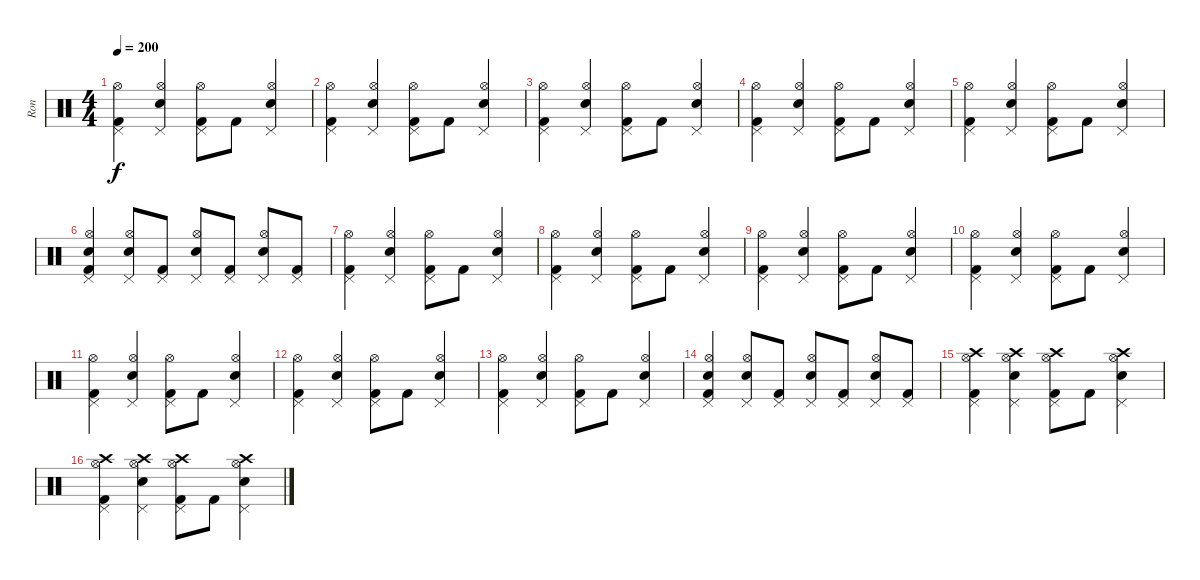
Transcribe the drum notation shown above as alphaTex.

\track ("Ron" "Ron") {instrument percussion}
\staff {score}
\articulation defaults
\ts (4 4)
\tempo 200
\clef neutral
\ks c
("Pedal Hi-Hat (hit)" "Kick (hit) 2" "Hi-Hat (open)").4{dy f} ("Electric Snare (hit)" "Pedal Hi-Hat (hit)" "Hi-Hat (open)").4 ("Pedal Hi-Hat (hit)" "Kick (hit) 2" "Hi-Hat (open)").8 "Kick (hit) 2".8 ("Electric Snare (hit)" "Pedal Hi-Hat (hit)" "Hi-Hat (open)").4 |
("Pedal Hi-Hat (hit)" "Kick (hit) 2" "Hi-Hat (open)").4 ("Electric Snare (hit)" "Pedal Hi-Hat (hit)" "Hi-Hat (open)").4 ("Pedal Hi-Hat (hit)" "Kick (hit) 2" "Hi-Hat (open)").8 "Kick (hit) 2".8 ("Electric Snare (hit)" "Pedal Hi-Hat (hit)" "Hi-Hat (open)").4 |
("Pedal Hi-Hat (hit)" "Kick (hit) 2" "Hi-Hat (open)").4 ("Electric Snare (hit)" "Pedal Hi-Hat (hit)" "Hi-Hat (open)").4 ("Pedal Hi-Hat (hit)" "Kick (hit) 2" "Hi-Hat (open)").8 "Kick (hit) 2".8 ("Electric Snare (hit)" "Pedal Hi-Hat (hit)" "Hi-Hat (open)").4 |
("Pedal Hi-Hat (hit)" "Kick (hit) 2" "Hi-Hat (open)").4 ("Electric Snare (hit)" "Pedal Hi-Hat (hit)" "Hi-Hat (open)").4 ("Pedal Hi-Hat (hit)" "Kick (hit) 2" "Hi-Hat (open)").8 "Kick (hit) 2".8 ("Electric Snare (hit)" "Pedal Hi-Hat (hit)" "Hi-Hat (open)").4 |
("Pedal Hi-Hat (hit)" "Kick (hit) 2" "Hi-Hat (open)").4 ("Electric Snare (hit)" "Pedal Hi-Hat (hit)" "Hi-Hat (open)").4 ("Pedal Hi-Hat (hit)" "Kick (hit) 2" "Hi-Hat (open)").8 "Kick (hit) 2".8 ("Electric Snare (hit)" "Pedal Hi-Hat (hit)" "Hi-Hat (open)").4 |
("Electric Snare (hit)" "Kick (hit) 2" "Pedal Hi-Hat (hit)" "Hi-Hat (open)").4 ("Electric Snare (hit)" "Pedal Hi-Hat (hit)" "Hi-Hat (open)").8 ("Kick (hit) 2" "Pedal Hi-Hat (hit)").8 ("Electric Snare (hit)" "Pedal Hi-Hat (hit)" "Hi-Hat (open)").8 ("Kick (hit) 2" "Pedal Hi-Hat (hit)").8 ("Electric Snare (hit)" "Pedal Hi-Hat (hit)" "Hi-Hat (open)").8 ("Kick (hit) 2" "Pedal Hi-Hat (hit)").8 |
("Pedal Hi-Hat (hit)" "Kick (hit) 2" "Hi-Hat (open)").4 ("Electric Snare (hit)" "Pedal Hi-Hat (hit)" "Hi-Hat (open)").4 ("Pedal Hi-Hat (hit)" "Kick (hit) 2" "Hi-Hat (open)").8 "Kick (hit) 2".8 ("Electric Snare (hit)" "Pedal Hi-Hat (hit)" "Hi-Hat (open)").4 |
("Pedal Hi-Hat (hit)" "Kick (hit) 2" "Hi-Hat (open)").4 ("Electric Snare (hit)" "Pedal Hi-Hat (hit)" "Hi-Hat (open)").4 ("Pedal Hi-Hat (hit)" "Kick (hit) 2" "Hi-Hat (open)").8 "Kick (hit) 2".8 ("Electric Snare (hit)" "Pedal Hi-Hat (hit)" "Hi-Hat (open)").4 |
("Pedal Hi-Hat (hit)" "Kick (hit) 2" "Hi-Hat (open)").4 ("Electric Snare (hit)" "Pedal Hi-Hat (hit)" "Hi-Hat (open)").4 ("Pedal Hi-Hat (hit)" "Kick (hit) 2" "Hi-Hat (open)").8 "Kick (hit) 2".8 ("Electric Snare (hit)" "Pedal Hi-Hat (hit)" "Hi-Hat (open)").4 |
("Pedal Hi-Hat (hit)" "Kick (hit) 2" "Hi-Hat (open)").4 ("Electric Snare (hit)" "Pedal Hi-Hat (hit)" "Hi-Hat (open)").4 ("Pedal Hi-Hat (hit)" "Kick (hit) 2" "Hi-Hat (open)").8 "Kick (hit) 2".8 ("Electric Snare (hit)" "Pedal Hi-Hat (hit)" "Hi-Hat (open)").4 |
("Pedal Hi-Hat (hit)" "Kick (hit) 2" "Hi-Hat (open)").4 ("Electric Snare (hit)" "Pedal Hi-Hat (hit)" "Hi-Hat (open)").4 ("Pedal Hi-Hat (hit)" "Kick (hit) 2" "Hi-Hat (open)").8 "Kick (hit) 2".8 ("Electric Snare (hit)" "Pedal Hi-Hat (hit)" "Hi-Hat (open)").4 |
("Pedal Hi-Hat (hit)" "Kick (hit) 2" "Hi-Hat (open)").4 ("Electric Snare (hit)" "Pedal Hi-Hat (hit)" "Hi-Hat (open)").4 ("Pedal Hi-Hat (hit)" "Kick (hit) 2" "Hi-Hat (open)").8 "Kick (hit) 2".8 ("Electric Snare (hit)" "Pedal Hi-Hat (hit)" "Hi-Hat (open)").4 |
("Pedal Hi-Hat (hit)" "Kick (hit) 2" "Hi-Hat (open)").4 ("Electric Snare (hit)" "Pedal Hi-Hat (hit)" "Hi-Hat (open)").4 ("Pedal Hi-Hat (hit)" "Kick (hit) 2" "Hi-Hat (open)").8 "Kick (hit) 2".8 ("Electric Snare (hit)" "Pedal Hi-Hat (hit)" "Hi-Hat (open)").4 |
("Electric Snare (hit)" "Kick (hit) 2" "Pedal Hi-Hat (hit)" "Hi-Hat (open)").4 ("Electric Snare (hit)" "Pedal Hi-Hat (hit)" "Hi-Hat (open)").8 ("Kick (hit) 2" "Pedal Hi-Hat (hit)").8 ("Electric Snare (hit)" "Pedal Hi-Hat (hit)" "Hi-Hat (open)").8 ("Kick (hit) 2" "Pedal Hi-Hat (hit)").8 ("Electric Snare (hit)" "Pedal Hi-Hat (hit)" "Hi-Hat (open)").8 ("Kick (hit) 2" "Pedal Hi-Hat (hit)").8 |
("Pedal Hi-Hat (hit)" "Kick (hit) 2" "Hi-Hat (open)" "Crash high (hit)").4 ("Electric Snare (hit)" "Pedal Hi-Hat (hit)" "Hi-Hat (open)" "Crash high (hit)").4 ("Pedal Hi-Hat (hit)" "Kick (hit) 2" "Hi-Hat (open)" "Crash high (hit)").8 "Kick (hit) 2".8 ("Electric Snare (hit)" "Pedal Hi-Hat (hit)" "Hi-Hat (open)" "Crash high (hit)").4 |
("Pedal Hi-Hat (hit)" "Kick (hit) 2" "Hi-Hat (open)" "Crash high (hit)").4 ("Electric Snare (hit)" "Pedal Hi-Hat (hit)" "Hi-Hat (open)" "Crash high (hit)").4 ("Pedal Hi-Hat (hit)" "Kick (hit) 2" "Hi-Hat (open)" "Crash high (hit)").8 "Kick (hit) 2".8 ("Electric Snare (hit)" "Pedal Hi-Hat (hit)" "Hi-Hat (open)" "Crash high (hit)").4
